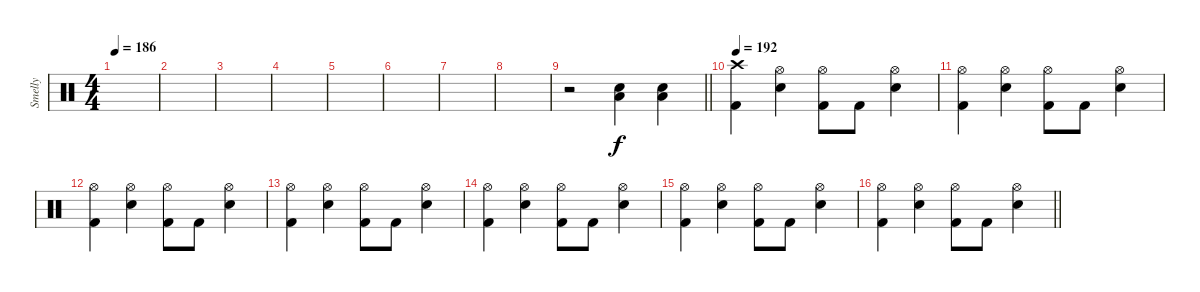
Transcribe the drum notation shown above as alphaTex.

\track ("Smelly" "Smelly") {instrument percussion}
\staff {score}
\articulation defaults
\ts (4 4)
\tempo 186
\clef neutral
\ks c
|
|
|
|
|
|
|
|
\barLineRight lightlight
r.2 ("Electric Snare (hit)" "Low Floor Tom (hit)").4 ("Electric Snare (hit)" "Low Floor Tom (hit)").4 |
\section ("" "")
\tempo 192
("Crash high (hit)" "Kick (hit) 2").4 ("Hi-Hat (open)" "Electric Snare (hit)").4 ("Hi-Hat (open)" "Kick (hit) 2").8 "Kick (hit) 2".8 ("Hi-Hat (open)" "Electric Snare (hit)").4 |
("Hi-Hat (open)" "Kick (hit) 2").4 ("Hi-Hat (open)" "Electric Snare (hit)").4 ("Hi-Hat (open)" "Kick (hit) 2").8 "Kick (hit) 2".8 ("Hi-Hat (open)" "Electric Snare (hit)").4 |
("Hi-Hat (open)" "Kick (hit) 2").4 ("Hi-Hat (open)" "Electric Snare (hit)").4 ("Hi-Hat (open)" "Kick (hit) 2").8 "Kick (hit) 2".8 ("Hi-Hat (open)" "Electric Snare (hit)").4 |
("Hi-Hat (open)" "Kick (hit) 2").4 ("Hi-Hat (open)" "Electric Snare (hit)").4 ("Hi-Hat (open)" "Kick (hit) 2").8 "Kick (hit) 2".8 ("Hi-Hat (open)" "Electric Snare (hit)").4 |
("Hi-Hat (open)" "Kick (hit) 2").4 ("Hi-Hat (open)" "Electric Snare (hit)").4 ("Hi-Hat (open)" "Kick (hit) 2").8 "Kick (hit) 2".8 ("Hi-Hat (open)" "Electric Snare (hit)").4 |
("Hi-Hat (open)" "Kick (hit) 2").4 ("Hi-Hat (open)" "Electric Snare (hit)").4 ("Hi-Hat (open)" "Kick (hit) 2").8 "Kick (hit) 2".8 ("Hi-Hat (open)" "Electric Snare (hit)").4 |
\barLineRight lightlight
("Hi-Hat (open)" "Kick (hit) 2").4 ("Hi-Hat (open)" "Electric Snare (hit)").4 ("Hi-Hat (open)" "Kick (hit) 2").8 "Kick (hit) 2".8 ("Hi-Hat (open)" "Electric Snare (hit)").4
